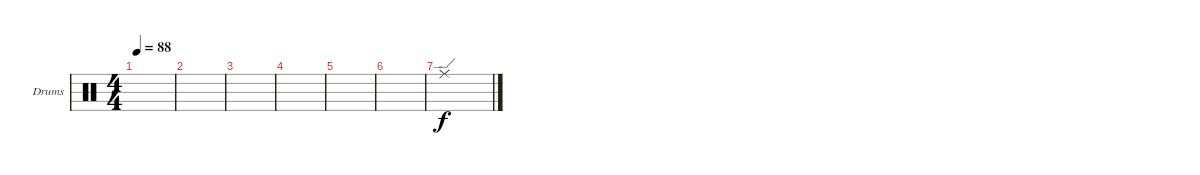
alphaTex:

\defaultSystemsLayout 4
\bracketExtendMode groupsimilarinstruments
\firstSystemTrackNameOrientation horizontal
\otherSystemsTrackNameOrientation horizontal
\track ("Helders" "Drums") {instrument percussion}
\staff {score}
\articulation defaults
\ts (4 4)
\tempo 88
\clef neutral
\ks c
|
|
|
|
|
|
"Ride (edge)".1
